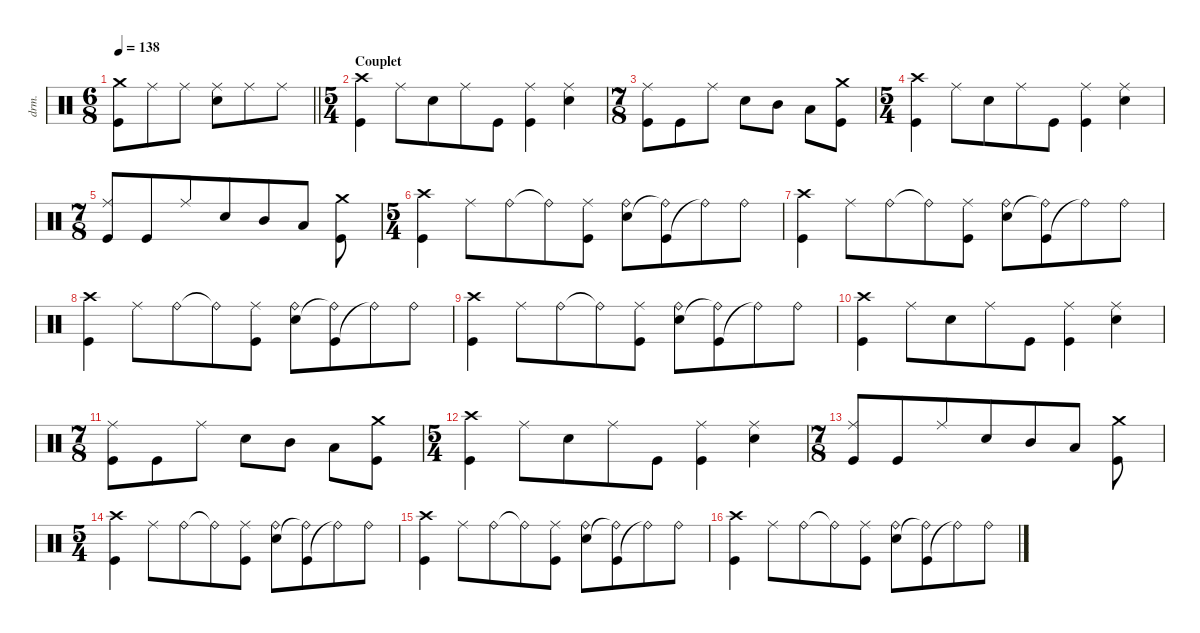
\defaultSystemsLayout 4
\hideDynamics
\bracketExtendMode nobrackets
\track ("Percussions" "drm.") {instrument percussion}
\staff {score}
\articulation defaults
\ts (6 8)
\tempo 138
\clef neutral
\barLineRight lightlight
\ks aminor
("Crash medium (hit)" "Kick (hit)").8{dy f beam Down} "Ride (middle)".8{beam Down} "Ride (middle)".8{beam Down} ("Ride (middle)" "Snare (hit) 2").8{beam Down} "Ride (middle)".8{beam Down} "Ride (middle)".8{beam Down} |
\ts (5 4)
\beaming (8 6 4)
\section ("" "Couplet")
("Crash high (hit)" "Kick (hit)").4{beam Down} "Ride (middle)".8{beam Down} "Snare (hit) 2".8{beam Down} "Ride (middle)".8{beam Down} "Kick (hit)".8{beam Down} ("Ride (middle)" "Kick (hit)").4{beam Down} ("Ride (middle)" "Snare (hit) 2").4{beam Down} |
\ts (7 8)
\beaming (8 3 2 2)
("Ride (middle)" "Kick (hit)").8{beam Down} "Kick (hit)".8{beam Down} "Ride (middle)".8{beam Down} "Snare (hit) 2".8{beam Down} "Mid Tom (hit)".8{beam Down} "Low Tom (hit)".8{beam Down} ("Kick (hit)" "Crash medium (hit)").8{beam Down} |
\ts (5 4)
\beaming (8 6 4)
("Crash high (hit)" "Kick (hit)").4{beam Down} "Ride (middle)".8{beam Down} "Snare (hit) 2".8{beam Down} "Ride (middle)".8{beam Down} "Kick (hit)".8{beam Down} ("Ride (middle)" "Kick (hit)").4{beam Down} ("Ride (middle)" "Snare (hit) 2").4{beam Down} |
\ts (7 8)
\beaming (8 6 4)
("Ride (middle)" "Kick (hit)").8{beam Up} "Kick (hit)".8{beam Up} "Ride (middle)".8{beam Up} "Snare (hit) 2".8{beam Up} "Mid Tom (hit)".8{beam Up} "Low Tom (hit)".8{beam Up} ("Kick (hit)" "Crash medium (hit)").8{beam Down} |
\ts (5 4)
\beaming (8 6 4)
("Crash high (hit)" "Kick (hit)").4{beam Down} "Ride (middle)".8{beam Down} "Ride (bell)".8{beam Down} "Ride (bell)"{t}.8{beam Down} ("Ride (middle)" "Kick (hit)").8{beam Down} ("Ride (bell)" "Snare (hit) 2").8{beam Down} ("Kick (hit)" "Ride (bell)"{t}).8{beam Down} "Ride (bell)"{t}.8{beam Down} "Ride (bell)".8{beam Down} |
("Crash high (hit)" "Kick (hit)").4{beam Down} "Ride (middle)".8{beam Down} "Ride (bell)".8{beam Down} "Ride (bell)"{t}.8{beam Down} ("Ride (middle)" "Kick (hit)").8{beam Down} ("Ride (bell)" "Snare (hit) 2").8{beam Down} ("Kick (hit)" "Ride (bell)"{t}).8{beam Down} "Ride (bell)"{t}.8{beam Down} "Ride (bell)".8{beam Down} |
("Crash high (hit)" "Kick (hit)").4{beam Down} "Ride (middle)".8{beam Down} "Ride (bell)".8{beam Down} "Ride (bell)"{t}.8{beam Down} ("Ride (middle)" "Kick (hit)").8{beam Down} ("Ride (bell)" "Snare (hit) 2").8{beam Down} ("Kick (hit)" "Ride (bell)"{t}).8{beam Down} "Ride (bell)"{t}.8{beam Down} "Ride (bell)".8{beam Down} |
("Crash high (hit)" "Kick (hit)").4{beam Down} "Ride (middle)".8{beam Down} "Ride (bell)".8{beam Down} "Ride (bell)"{t}.8{beam Down} ("Ride (middle)" "Kick (hit)").8{beam Down} ("Ride (bell)" "Snare (hit) 2").8{beam Down} ("Kick (hit)" "Ride (bell)"{t}).8{beam Down} "Ride (bell)"{t}.8{beam Down} "Ride (bell)".8{beam Down} |
("Crash high (hit)" "Kick (hit)").4{beam Down} "Ride (middle)".8{beam Down} "Snare (hit) 2".8{beam Down} "Ride (middle)".8{beam Down} "Kick (hit)".8{beam Down} ("Ride (middle)" "Kick (hit)").4{beam Down} ("Ride (middle)" "Snare (hit) 2").4{beam Down} |
\ts (7 8)
\beaming (8 3 2 2)
("Ride (middle)" "Kick (hit)").8{beam Down} "Kick (hit)".8{beam Down} "Ride (middle)".8{beam Down} "Snare (hit) 2".8{beam Down} "Mid Tom (hit)".8{beam Down} "Low Tom (hit)".8{beam Down} ("Kick (hit)" "Crash medium (hit)").8{beam Down} |
\ts (5 4)
\beaming (8 6 4)
("Crash high (hit)" "Kick (hit)").4{beam Down} "Ride (middle)".8{beam Down} "Snare (hit) 2".8{beam Down} "Ride (middle)".8{beam Down} "Kick (hit)".8{beam Down} ("Ride (middle)" "Kick (hit)").4{beam Down} ("Ride (middle)" "Snare (hit) 2").4{beam Down} |
\ts (7 8)
\beaming (8 6 4)
("Ride (middle)" "Kick (hit)").8{beam Up} "Kick (hit)".8{beam Up} "Ride (middle)".8{beam Up} "Snare (hit) 2".8{beam Up} "Mid Tom (hit)".8{beam Up} "Low Tom (hit)".8{beam Up} ("Kick (hit)" "Crash medium (hit)").8{beam Down} |
\ts (5 4)
\beaming (8 6 4)
("Crash high (hit)" "Kick (hit)").4{beam Down} "Ride (middle)".8{beam Down} "Ride (bell)".8{beam Down} "Ride (bell)"{t}.8{beam Down} ("Ride (middle)" "Kick (hit)").8{beam Down} ("Ride (bell)" "Snare (hit) 2").8{beam Down} ("Kick (hit)" "Ride (bell)"{t}).8{beam Down} "Ride (bell)"{t}.8{beam Down} "Ride (bell)".8{beam Down} |
("Crash high (hit)" "Kick (hit)").4{beam Down} "Ride (middle)".8{beam Down} "Ride (bell)".8{beam Down} "Ride (bell)"{t}.8{beam Down} ("Ride (middle)" "Kick (hit)").8{beam Down} ("Ride (bell)" "Snare (hit) 2").8{beam Down} ("Kick (hit)" "Ride (bell)"{t}).8{beam Down} "Ride (bell)"{t}.8{beam Down} "Ride (bell)".8{beam Down} |
("Crash high (hit)" "Kick (hit)").4{beam Down} "Ride (middle)".8{beam Down} "Ride (bell)".8{beam Down} "Ride (bell)"{t}.8{beam Down} ("Ride (middle)" "Kick (hit)").8{beam Down} ("Ride (bell)" "Snare (hit) 2").8{beam Down} ("Kick (hit)" "Ride (bell)"{t}).8{beam Down} "Ride (bell)"{t}.8{beam Down} "Ride (bell)".8{beam Down}
